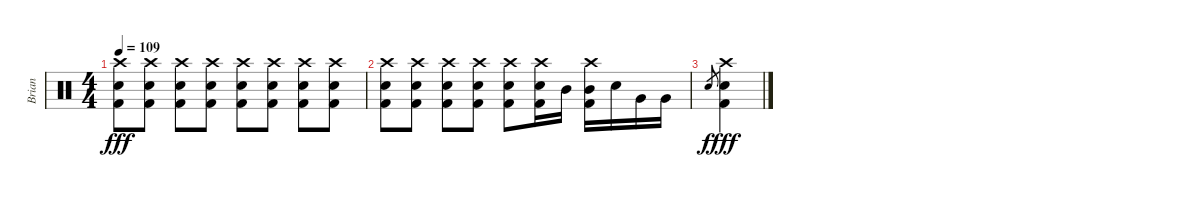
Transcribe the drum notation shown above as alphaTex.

\track ("Brian" "Brian") {instrument percussion}
\staff {score}
\articulation defaults
\ts (4 4)
\tempo 109
\clef neutral
\ks c
("Crash high (hit)" "Electric Snare (hit)" "Kick (hit) 2").8{dy fff} ("Crash high (hit)" "Electric Snare (hit)" "Kick (hit) 2").8 ("Crash high (hit)" "Electric Snare (hit)" "Kick (hit) 2").8 ("Crash high (hit)" "Electric Snare (hit)" "Kick (hit) 2").8 ("Crash high (hit)" "Electric Snare (hit)" "Kick (hit) 2").8 ("Crash high (hit)" "Electric Snare (hit)" "Kick (hit) 2").8 ("Crash high (hit)" "Electric Snare (hit)" "Kick (hit) 2").8 ("Crash high (hit)" "Electric Snare (hit)" "Kick (hit) 2").8 |
("Crash high (hit)" "Electric Snare (hit)" "Kick (hit) 2").8 ("Crash high (hit)" "Electric Snare (hit)" "Kick (hit) 2").8 ("Crash high (hit)" "Electric Snare (hit)" "Kick (hit) 2").8 ("Crash high (hit)" "Electric Snare (hit)" "Kick (hit) 2").8 ("Crash high (hit)" "Electric Snare (hit)" "Kick (hit) 2").8 ("Crash high (hit)" "Electric Snare (hit)" "Kick (hit) 2").16 "Mid Tom (hit)".16 ("Crash high (hit)" "Mid Tom (hit)" "Kick (hit) 2").16 "Electric Snare (hit)".16 "Very Low Tom (hit)".16 "Very Low Tom (hit)".16 |
"Electric Snare (hit)".8{gr dy f} ("Crash high (hit)" "Electric Snare (hit)" "Kick (hit) 2").4{dy fff}
